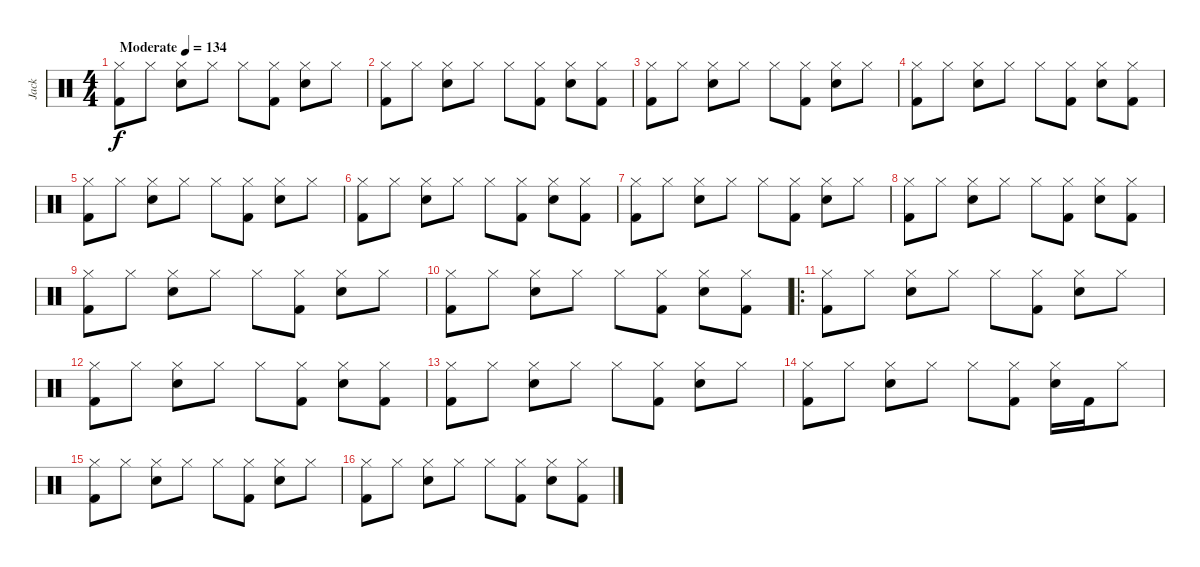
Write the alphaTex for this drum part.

\track ("Jack" "Jack") {instrument percussion}
\staff {score}
\articulation defaults
\ts (4 4)
\tempo (134 "Moderate")
\clef neutral
\ks c
("Hi-Hat (closed)" "Kick (hit) 2").8{dy f} "Hi-Hat (closed)".8 ("Hi-Hat (closed)" "Electric Snare (hit)").8 "Hi-Hat (closed)".8 "Hi-Hat (closed)".8 ("Hi-Hat (closed)" "Kick (hit) 2").8 ("Hi-Hat (closed)" "Electric Snare (hit)").8 "Hi-Hat (closed)".8 |
("Hi-Hat (closed)" "Kick (hit) 2").8 "Hi-Hat (closed)".8 ("Hi-Hat (closed)" "Electric Snare (hit)").8 "Hi-Hat (closed)".8 "Hi-Hat (closed)".8 ("Hi-Hat (closed)" "Kick (hit) 2").8 ("Hi-Hat (closed)" "Electric Snare (hit)").8 ("Hi-Hat (closed)" "Kick (hit) 2").8 |
("Hi-Hat (closed)" "Kick (hit) 2").8 "Hi-Hat (closed)".8 ("Hi-Hat (closed)" "Electric Snare (hit)").8 "Hi-Hat (closed)".8 "Hi-Hat (closed)".8 ("Hi-Hat (closed)" "Kick (hit) 2").8 ("Hi-Hat (closed)" "Electric Snare (hit)").8 "Hi-Hat (closed)".8 |
("Hi-Hat (closed)" "Kick (hit) 2").8 "Hi-Hat (closed)".8 ("Hi-Hat (closed)" "Electric Snare (hit)").8 "Hi-Hat (closed)".8 "Hi-Hat (closed)".8 ("Hi-Hat (closed)" "Kick (hit) 2").8 ("Hi-Hat (closed)" "Electric Snare (hit)").8 ("Hi-Hat (closed)" "Kick (hit) 2").8 |
("Hi-Hat (closed)" "Kick (hit) 2").8 "Hi-Hat (closed)".8 ("Hi-Hat (closed)" "Electric Snare (hit)").8 "Hi-Hat (closed)".8 "Hi-Hat (closed)".8 ("Hi-Hat (closed)" "Kick (hit) 2").8 ("Hi-Hat (closed)" "Electric Snare (hit)").8 "Hi-Hat (closed)".8 |
("Hi-Hat (closed)" "Kick (hit) 2").8 "Hi-Hat (closed)".8 ("Hi-Hat (closed)" "Electric Snare (hit)").8 "Hi-Hat (closed)".8 "Hi-Hat (closed)".8 ("Hi-Hat (closed)" "Kick (hit) 2").8 ("Hi-Hat (closed)" "Electric Snare (hit)").8 ("Hi-Hat (closed)" "Kick (hit) 2").8 |
("Hi-Hat (closed)" "Kick (hit) 2").8 "Hi-Hat (closed)".8 ("Hi-Hat (closed)" "Electric Snare (hit)").8 "Hi-Hat (closed)".8 "Hi-Hat (closed)".8 ("Hi-Hat (closed)" "Kick (hit) 2").8 ("Hi-Hat (closed)" "Electric Snare (hit)").8 "Hi-Hat (closed)".8 |
("Hi-Hat (closed)" "Kick (hit) 2").8 "Hi-Hat (closed)".8 ("Hi-Hat (closed)" "Electric Snare (hit)").8 "Hi-Hat (closed)".8 "Hi-Hat (closed)".8 ("Hi-Hat (closed)" "Kick (hit) 2").8 ("Hi-Hat (closed)" "Electric Snare (hit)").8 ("Hi-Hat (closed)" "Kick (hit) 2").8 |
("Hi-Hat (closed)" "Kick (hit) 2").8 "Hi-Hat (closed)".8 ("Hi-Hat (closed)" "Electric Snare (hit)").8 "Hi-Hat (closed)".8 "Hi-Hat (closed)".8 ("Hi-Hat (closed)" "Kick (hit) 2").8 ("Hi-Hat (closed)" "Electric Snare (hit)").8 "Hi-Hat (closed)".8 |
("Hi-Hat (closed)" "Kick (hit) 2").8 "Hi-Hat (closed)".8 ("Hi-Hat (closed)" "Electric Snare (hit)").8 "Hi-Hat (closed)".8 "Hi-Hat (closed)".8 ("Hi-Hat (closed)" "Kick (hit) 2").8 ("Hi-Hat (closed)" "Electric Snare (hit)").8 ("Hi-Hat (closed)" "Kick (hit) 2").8 |
\ro
("Hi-Hat (closed)" "Kick (hit) 2").8 "Hi-Hat (closed)".8 ("Hi-Hat (closed)" "Electric Snare (hit)").8 "Hi-Hat (closed)".8 "Hi-Hat (closed)".8 ("Hi-Hat (closed)" "Kick (hit) 2").8 ("Hi-Hat (closed)" "Electric Snare (hit)").8 "Hi-Hat (closed)".8 |
("Hi-Hat (closed)" "Kick (hit) 2").8 "Hi-Hat (closed)".8 ("Hi-Hat (closed)" "Electric Snare (hit)").8 "Hi-Hat (closed)".8 "Hi-Hat (closed)".8 ("Hi-Hat (closed)" "Kick (hit) 2").8 ("Hi-Hat (closed)" "Electric Snare (hit)").8 ("Hi-Hat (closed)" "Kick (hit) 2").8 |
("Hi-Hat (closed)" "Kick (hit) 2").8 "Hi-Hat (closed)".8 ("Hi-Hat (closed)" "Electric Snare (hit)").8 "Hi-Hat (closed)".8 "Hi-Hat (closed)".8 ("Hi-Hat (closed)" "Kick (hit) 2").8 ("Hi-Hat (closed)" "Electric Snare (hit)").8 "Hi-Hat (closed)".8 |
("Hi-Hat (closed)" "Kick (hit) 2").8 "Hi-Hat (closed)".8 ("Hi-Hat (closed)" "Electric Snare (hit)").8 "Hi-Hat (closed)".8 "Hi-Hat (closed)".8 ("Hi-Hat (closed)" "Kick (hit) 2").8 ("Hi-Hat (closed)" "Electric Snare (hit)").16 "Kick (hit) 2".16 "Hi-Hat (closed)".8 |
("Hi-Hat (closed)" "Kick (hit) 2").8 "Hi-Hat (closed)".8 ("Hi-Hat (closed)" "Electric Snare (hit)").8 "Hi-Hat (closed)".8 "Hi-Hat (closed)".8 ("Hi-Hat (closed)" "Kick (hit) 2").8 ("Hi-Hat (closed)" "Electric Snare (hit)").8 "Hi-Hat (closed)".8 |
("Hi-Hat (closed)" "Kick (hit) 2").8 "Hi-Hat (closed)".8 ("Hi-Hat (closed)" "Electric Snare (hit)").8 "Hi-Hat (closed)".8 "Hi-Hat (closed)".8 ("Hi-Hat (closed)" "Kick (hit) 2").8 ("Hi-Hat (closed)" "Electric Snare (hit)").8 ("Hi-Hat (closed)" "Kick (hit) 2").8
